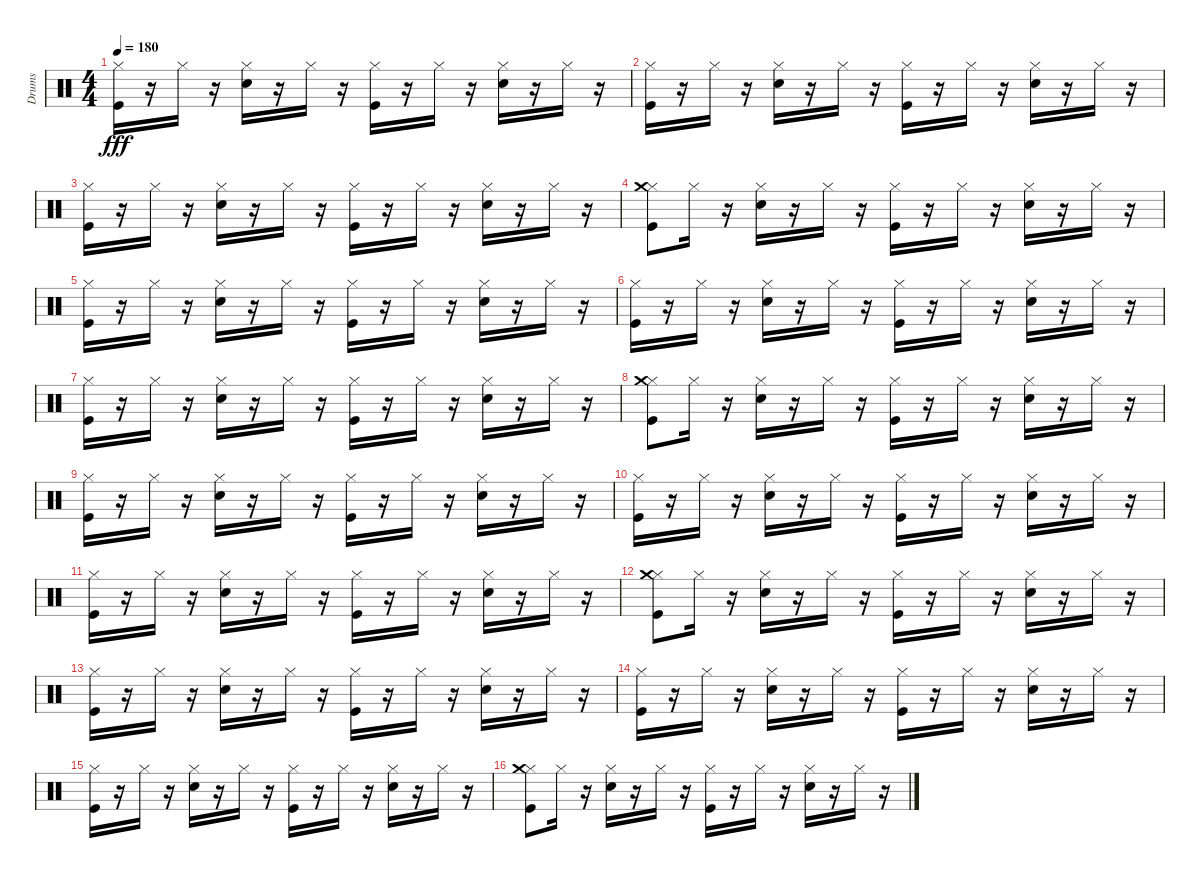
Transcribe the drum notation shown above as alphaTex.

\track ("Drums" "Drums") {instrument percussion}
\staff {score}
\articulation defaults
\ts (4 4)
\tempo 180
\clef neutral
\ks c
("Hi-Hat (closed)" "Kick (hit)").16{dy fff} r.16 "Hi-Hat (closed)".16 r.16 ("Hi-Hat (closed)" "Snare (hit) 2").16 r.16 "Hi-Hat (closed)".16 r.16 ("Hi-Hat (closed)" "Kick (hit)").16 r.16 "Hi-Hat (closed)".16 r.16 ("Hi-Hat (closed)" "Snare (hit) 2").16 r.16 "Hi-Hat (closed)".16 r.16 |
("Kick (hit)" "Hi-Hat (closed)").16 r.16 "Hi-Hat (closed)".16 r.16 ("Snare (hit) 2" "Hi-Hat (closed)").16 r.16 "Hi-Hat (closed)".16 r.16 ("Kick (hit)" "Hi-Hat (closed)").16 r.16 "Hi-Hat (closed)".16 r.16 ("Snare (hit) 2" "Hi-Hat (closed)").16 r.16 "Hi-Hat (closed)".16 r.16 |
("Hi-Hat (closed)" "Kick (hit)").16 r.16 "Hi-Hat (closed)".16 r.16 ("Hi-Hat (closed)" "Snare (hit) 2").16 r.16 "Hi-Hat (closed)".16 r.16 ("Hi-Hat (closed)" "Kick (hit)").16 r.16 "Hi-Hat (closed)".16 r.16 ("Hi-Hat (closed)" "Snare (hit) 2").16 r.16 "Hi-Hat (closed)".16 r.16 |
("Kick (hit)" "Hi-Hat (closed)" "Crash medium (hit)").8 "Hi-Hat (closed)".16 r.16 ("Snare (hit) 2" "Hi-Hat (closed)").16 r.16 "Hi-Hat (closed)".16 r.16 ("Kick (hit)" "Hi-Hat (closed)").16 r.16 "Hi-Hat (closed)".16 r.16 ("Snare (hit) 2" "Hi-Hat (closed)").16 r.16 "Hi-Hat (closed)".16 r.16 |
("Hi-Hat (closed)" "Kick (hit)").16 r.16 "Hi-Hat (closed)".16 r.16 ("Hi-Hat (closed)" "Snare (hit) 2").16 r.16 "Hi-Hat (closed)".16 r.16 ("Hi-Hat (closed)" "Kick (hit)").16 r.16 "Hi-Hat (closed)".16 r.16 ("Hi-Hat (closed)" "Snare (hit) 2").16 r.16 "Hi-Hat (closed)".16 r.16 |
("Kick (hit)" "Hi-Hat (closed)").16 r.16 "Hi-Hat (closed)".16 r.16 ("Snare (hit) 2" "Hi-Hat (closed)").16 r.16 "Hi-Hat (closed)".16 r.16 ("Kick (hit)" "Hi-Hat (closed)").16 r.16 "Hi-Hat (closed)".16 r.16 ("Snare (hit) 2" "Hi-Hat (closed)").16 r.16 "Hi-Hat (closed)".16 r.16 |
("Hi-Hat (closed)" "Kick (hit)").16 r.16 "Hi-Hat (closed)".16 r.16 ("Hi-Hat (closed)" "Snare (hit) 2").16 r.16 "Hi-Hat (closed)".16 r.16 ("Hi-Hat (closed)" "Kick (hit)").16 r.16 "Hi-Hat (closed)".16 r.16 ("Hi-Hat (closed)" "Snare (hit) 2").16 r.16 "Hi-Hat (closed)".16 r.16 |
("Kick (hit)" "Hi-Hat (closed)" "Crash medium (hit)").8 "Hi-Hat (closed)".16 r.16 ("Snare (hit) 2" "Hi-Hat (closed)").16 r.16 "Hi-Hat (closed)".16 r.16 ("Kick (hit)" "Hi-Hat (closed)").16 r.16 "Hi-Hat (closed)".16 r.16 ("Snare (hit) 2" "Hi-Hat (closed)").16 r.16 "Hi-Hat (closed)".16 r.16 |
("Hi-Hat (closed)" "Kick (hit)").16 r.16 "Hi-Hat (closed)".16 r.16 ("Hi-Hat (closed)" "Snare (hit) 2").16 r.16 "Hi-Hat (closed)".16 r.16 ("Hi-Hat (closed)" "Kick (hit)").16 r.16 "Hi-Hat (closed)".16 r.16 ("Hi-Hat (closed)" "Snare (hit) 2").16 r.16 "Hi-Hat (closed)".16 r.16 |
("Kick (hit)" "Hi-Hat (closed)").16 r.16 "Hi-Hat (closed)".16 r.16 ("Snare (hit) 2" "Hi-Hat (closed)").16 r.16 "Hi-Hat (closed)".16 r.16 ("Kick (hit)" "Hi-Hat (closed)").16 r.16 "Hi-Hat (closed)".16 r.16 ("Snare (hit) 2" "Hi-Hat (closed)").16 r.16 "Hi-Hat (closed)".16 r.16 |
("Hi-Hat (closed)" "Kick (hit)").16 r.16 "Hi-Hat (closed)".16 r.16 ("Hi-Hat (closed)" "Snare (hit) 2").16 r.16 "Hi-Hat (closed)".16 r.16 ("Hi-Hat (closed)" "Kick (hit)").16 r.16 "Hi-Hat (closed)".16 r.16 ("Hi-Hat (closed)" "Snare (hit) 2").16 r.16 "Hi-Hat (closed)".16 r.16 |
("Kick (hit)" "Hi-Hat (closed)" "Crash medium (hit)").8 "Hi-Hat (closed)".16 r.16 ("Snare (hit) 2" "Hi-Hat (closed)").16 r.16 "Hi-Hat (closed)".16 r.16 ("Kick (hit)" "Hi-Hat (closed)").16 r.16 "Hi-Hat (closed)".16 r.16 ("Snare (hit) 2" "Hi-Hat (closed)").16 r.16 "Hi-Hat (closed)".16 r.16 |
("Hi-Hat (closed)" "Kick (hit)").16 r.16 "Hi-Hat (closed)".16 r.16 ("Hi-Hat (closed)" "Snare (hit) 2").16 r.16 "Hi-Hat (closed)".16 r.16 ("Hi-Hat (closed)" "Kick (hit)").16 r.16 "Hi-Hat (closed)".16 r.16 ("Hi-Hat (closed)" "Snare (hit) 2").16 r.16 "Hi-Hat (closed)".16 r.16 |
("Kick (hit)" "Hi-Hat (closed)").16 r.16 "Hi-Hat (closed)".16 r.16 ("Snare (hit) 2" "Hi-Hat (closed)").16 r.16 "Hi-Hat (closed)".16 r.16 ("Kick (hit)" "Hi-Hat (closed)").16 r.16 "Hi-Hat (closed)".16 r.16 ("Snare (hit) 2" "Hi-Hat (closed)").16 r.16 "Hi-Hat (closed)".16 r.16 |
("Hi-Hat (closed)" "Kick (hit)").16 r.16 "Hi-Hat (closed)".16 r.16 ("Hi-Hat (closed)" "Snare (hit) 2").16 r.16 "Hi-Hat (closed)".16 r.16 ("Hi-Hat (closed)" "Kick (hit)").16 r.16 "Hi-Hat (closed)".16 r.16 ("Hi-Hat (closed)" "Snare (hit) 2").16 r.16 "Hi-Hat (closed)".16 r.16 |
("Kick (hit)" "Hi-Hat (closed)" "Crash medium (hit)").8 "Hi-Hat (closed)".16 r.16 ("Snare (hit) 2" "Hi-Hat (closed)").16 r.16 "Hi-Hat (closed)".16 r.16 ("Kick (hit)" "Hi-Hat (closed)").16 r.16 "Hi-Hat (closed)".16 r.16 ("Snare (hit) 2" "Hi-Hat (closed)").16 r.16 "Hi-Hat (closed)".16 r.16
